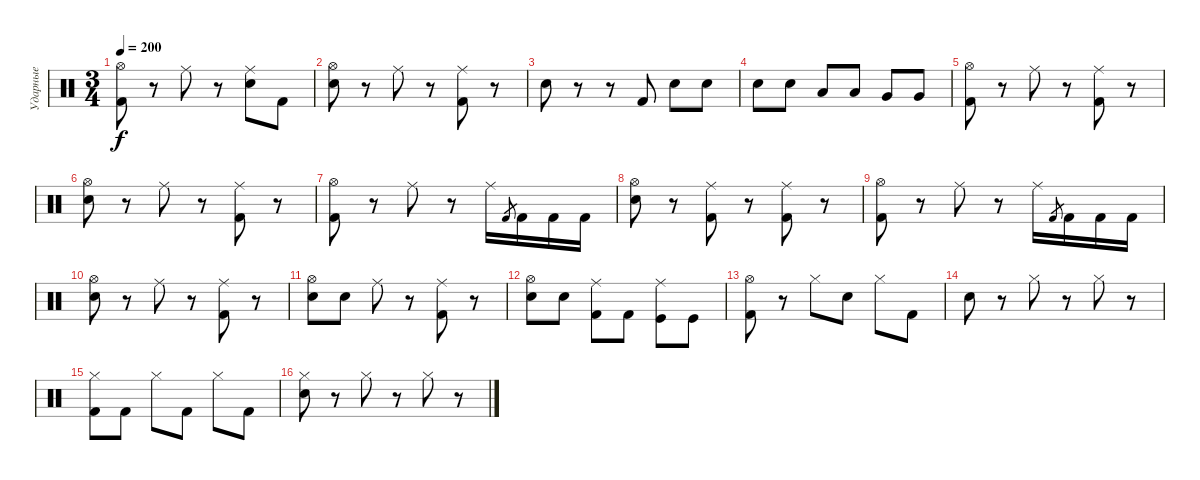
\track ("Ударные" "Ударные") {instrument percussion}
\staff {score}
\articulation defaults
\ts (3 4)
\tempo 200
\clef neutral
\ks c
("Hi-Hat (open)" "Kick (hit) 2").8{dy f} r.8 "Ride (middle)".8 r.8 ("Ride (middle)" "Electric Snare (hit)").8 "Kick (hit) 2".8 |
("Hi-Hat (open)" "Electric Snare (hit)").8 r.8 "Ride (middle)".8 r.8 ("Ride (middle)" "Kick (hit) 2").8 r.8 |
"Electric Snare (hit)".8 r.8 r.8 "Kick (hit) 2".8 "Electric Snare (hit)".8 "Electric Snare (hit)".8 |
"Electric Snare (hit)".8 "Electric Snare (hit)".8 "Low Tom (hit)".8 "Low Tom (hit)".8 "Very Low Tom (hit)".8 "Very Low Tom (hit)".8 |
("Hi-Hat (open)" "Kick (hit) 2").8 r.8 "Ride (middle)".8 r.8 ("Ride (middle)" "Kick (hit) 2").8 r.8 |
("Hi-Hat (open)" "Electric Snare (hit)").8 r.8 "Ride (middle)".8 r.8 ("Ride (middle)" "Kick (hit) 2").8 r.8 |
("Hi-Hat (open)" "Kick (hit) 2").8 r.8 "Ride (middle)".8 r.8 "Ride (middle)".16 "Kick (hit) 2".8{gr} "Kick (hit) 2".16 "Kick (hit) 2".16 "Kick (hit) 2".16 |
("Hi-Hat (open)" "Electric Snare (hit)").8 r.8 ("Ride (middle)" "Kick (hit) 2").8 r.8 ("Ride (middle)" "Kick (hit) 2").8 r.8 |
("Hi-Hat (open)" "Kick (hit) 2").8 r.8 "Ride (middle)".8 r.8 "Ride (middle)".16 "Kick (hit) 2".8{gr} "Kick (hit) 2".16 "Kick (hit) 2".16 "Kick (hit) 2".16 |
("Hi-Hat (open)" "Electric Snare (hit)").8 r.8 "Ride (middle)".8 r.8 ("Ride (middle)" "Kick (hit) 2").8 r.8 |
("Hi-Hat (open)" "Electric Snare (hit)").8 "Electric Snare (hit)".8 "Ride (middle)".8 r.8 ("Ride (middle)" "Kick (hit) 2").8 r.8 |
("Hi-Hat (open)" "Electric Snare (hit)").8 "Electric Snare (hit)".8 ("Ride (middle)" "Kick (hit) 2").8 "Kick (hit) 2".8 ("Ride (middle)" "Kick (hit)").8 "Kick (hit)".8 |
("Hi-Hat (open)" "Kick (hit) 2").8 r.8 "Hi-Hat (closed)".8 "Electric Snare (hit)".8 "Hi-Hat (closed)".8 "Kick (hit) 2".8 |
"Electric Snare (hit)".8 r.8 "Hi-Hat (closed)".8 r.8 "Hi-Hat (closed)".8 r.8 |
("Hi-Hat (closed)" "Kick (hit) 2").8 "Kick (hit) 2".8 "Hi-Hat (closed)".8 "Kick (hit) 2".8 "Hi-Hat (closed)".8 "Kick (hit) 2".8 |
("Electric Snare (hit)" "Hi-Hat (closed)").8 r.8 "Hi-Hat (closed)".8 r.8 "Hi-Hat (closed)".8 r.8
